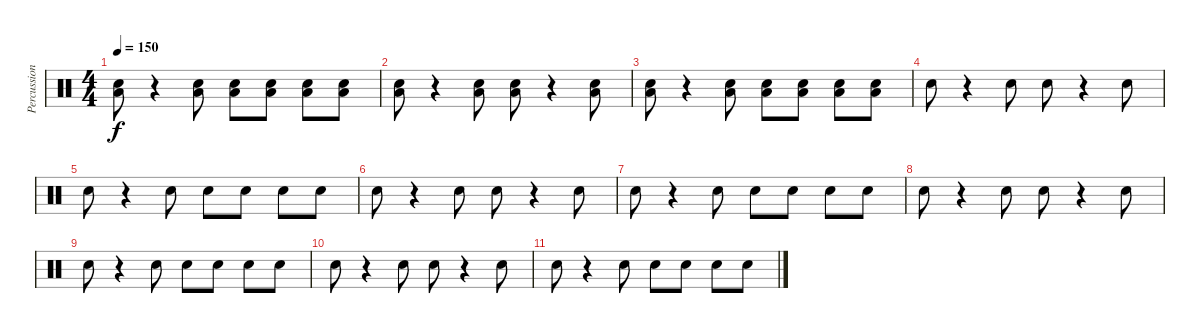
\track ("Percussion" "Percussion") {instrument percussion}
\staff {score}
\articulation defaults
\ts (4 4)
\tempo 150
\clef neutral
\ks c
("Low Tom (hit)" "Snare (hit) 2").8{dy f} r.4 ("Low Tom (hit)" "Snare (hit) 2").8 ("Low Tom (hit)" "Snare (hit) 2").8 ("Low Tom (hit)" "Snare (hit) 2").8 ("Low Tom (hit)" "Snare (hit) 2").8 ("Low Tom (hit)" "Snare (hit) 2").8 |
("Low Tom (hit)" "Snare (hit) 2").8 r.4 ("Low Tom (hit)" "Snare (hit) 2").8 ("Low Tom (hit)" "Snare (hit) 2").8 r.4 ("Low Tom (hit)" "Snare (hit) 2").8 |
("Low Tom (hit)" "Snare (hit) 2").8 r.4 ("Low Tom (hit)" "Snare (hit) 2").8 ("Low Tom (hit)" "Snare (hit) 2").8 ("Low Tom (hit)" "Snare (hit) 2").8 ("Low Tom (hit)" "Snare (hit) 2").8 ("Low Tom (hit)" "Snare (hit) 2").8 |
"Snare (hit) 2".8 r.4 "Snare (hit) 2".8 "Snare (hit) 2".8 r.4 "Snare (hit) 2".8 |
"Snare (hit) 2".8 r.4 "Snare (hit) 2".8 "Snare (hit) 2".8 "Snare (hit) 2".8 "Snare (hit) 2".8 "Snare (hit) 2".8 |
"Snare (hit) 2".8 r.4 "Snare (hit) 2".8 "Snare (hit) 2".8 r.4 "Snare (hit) 2".8 |
"Snare (hit) 2".8 r.4 "Snare (hit) 2".8 "Snare (hit) 2".8 "Snare (hit) 2".8 "Snare (hit) 2".8 "Snare (hit) 2".8 |
"Snare (hit) 2".8 r.4 "Snare (hit) 2".8 "Snare (hit) 2".8 r.4 "Snare (hit) 2".8 |
"Snare (hit) 2".8 r.4 "Snare (hit) 2".8 "Snare (hit) 2".8 "Snare (hit) 2".8 "Snare (hit) 2".8 "Snare (hit) 2".8 |
"Snare (hit) 2".8 r.4 "Snare (hit) 2".8 "Snare (hit) 2".8 r.4 "Snare (hit) 2".8 |
"Snare (hit) 2".8 r.4 "Snare (hit) 2".8 "Snare (hit) 2".8 "Snare (hit) 2".8 "Snare (hit) 2".8 "Snare (hit) 2".8
